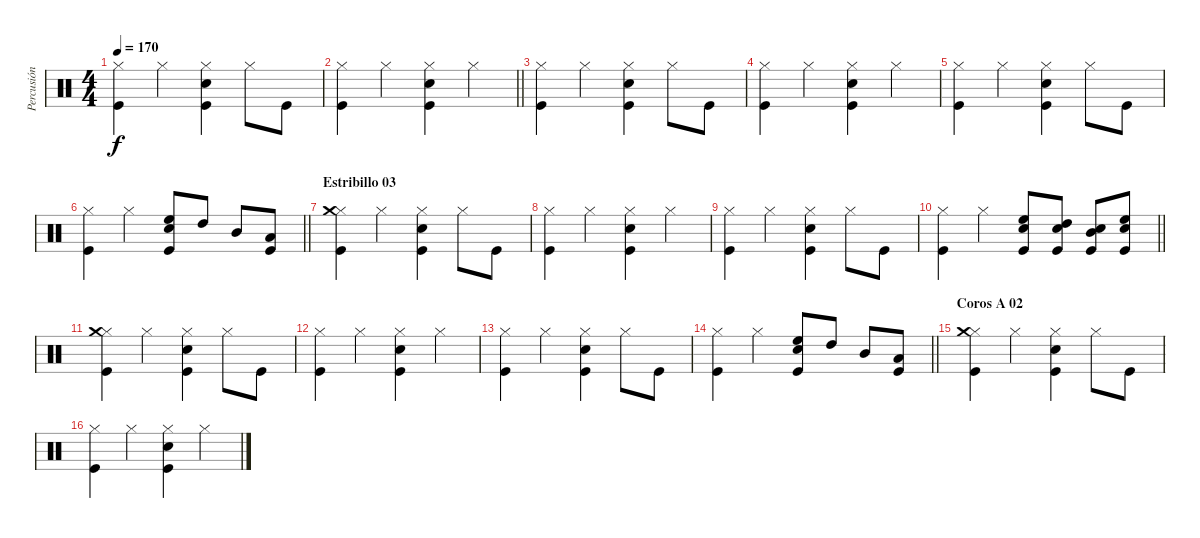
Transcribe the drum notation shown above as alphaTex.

\track ("Percusión" "Percusión") {instrument percussion}
\staff {score}
\articulation defaults
\ts (4 4)
\tempo 170
\clef neutral
\ks c
("Hi-Hat (closed)" "Kick (hit)").4{dy f} "Hi-Hat (closed)".4 ("Hi-Hat (closed)" "Snare (hit) 2" "Kick (hit)").4 "Hi-Hat (closed)".8 "Kick (hit)".8 |
\barLineRight lightlight
("Hi-Hat (closed)" "Kick (hit)").4 "Hi-Hat (closed)".4 ("Hi-Hat (closed)" "Snare (hit) 2" "Kick (hit)").4 "Hi-Hat (closed)".4 |
("Hi-Hat (closed)" "Kick (hit)").4 "Hi-Hat (closed)".4 ("Hi-Hat (closed)" "Snare (hit) 2" "Kick (hit)").4 "Hi-Hat (closed)".8 "Kick (hit)".8 |
("Hi-Hat (closed)" "Kick (hit)").4 "Hi-Hat (closed)".4 ("Hi-Hat (closed)" "Snare (hit) 2" "Kick (hit)").4 "Hi-Hat (closed)".4 |
("Hi-Hat (closed)" "Kick (hit)").4 "Hi-Hat (closed)".4 ("Hi-Hat (closed)" "Snare (hit) 2" "Kick (hit)").4 "Hi-Hat (closed)".8 "Kick (hit)".8 |
\barLineRight lightlight
("Hi-Hat (closed)" "Kick (hit)").4 "Hi-Hat (closed)".4 ("High Floor Tom (hit)" "Snare (hit) 2" "Kick (hit)").8 "High Tom (hit)".8 "Mid Tom (hit)".8 ("Low Tom (hit)" "Kick (hit)").8 |
\section ("" "Estribillo 03")
("Hi-Hat (closed)" "Crash medium (hit)" "Kick (hit)").4 "Hi-Hat (closed)".4 ("Hi-Hat (closed)" "Snare (hit) 2" "Kick (hit)").4 "Hi-Hat (closed)".8 "Kick (hit)".8 |
("Hi-Hat (closed)" "Kick (hit)").4 "Hi-Hat (closed)".4 ("Hi-Hat (closed)" "Snare (hit) 2" "Kick (hit)").4 "Hi-Hat (closed)".4 |
("Hi-Hat (closed)" "Kick (hit)").4 "Hi-Hat (closed)".4 ("Hi-Hat (closed)" "Snare (hit) 2" "Kick (hit)").4 "Hi-Hat (closed)".8 "Kick (hit)".8 |
\barLineRight lightlight
("Hi-Hat (closed)" "Kick (hit)").4 "Hi-Hat (closed)".4 ("Snare (hit) 2" "High Floor Tom (hit)" "Kick (hit)").8 ("Snare (hit) 2" "High Tom (hit)" "Kick (hit)").8 ("Snare (hit) 2" "Mid Tom (hit)" "Kick (hit)").8 ("Snare (hit) 2" "High Floor Tom (hit)" "Kick (hit)").8 |
("Hi-Hat (closed)" "Crash medium (hit)" "Kick (hit)").4 "Hi-Hat (closed)".4 ("Hi-Hat (closed)" "Snare (hit) 2" "Kick (hit)").4 "Hi-Hat (closed)".8 "Kick (hit)".8 |
("Hi-Hat (closed)" "Kick (hit)").4 "Hi-Hat (closed)".4 ("Hi-Hat (closed)" "Snare (hit) 2" "Kick (hit)").4 "Hi-Hat (closed)".4 |
("Hi-Hat (closed)" "Kick (hit)").4 "Hi-Hat (closed)".4 ("Hi-Hat (closed)" "Snare (hit) 2" "Kick (hit)").4 "Hi-Hat (closed)".8 "Kick (hit)".8 |
\barLineRight lightlight
("Hi-Hat (closed)" "Kick (hit)").4 "Hi-Hat (closed)".4 ("High Floor Tom (hit)" "Snare (hit) 2" "Kick (hit)").8 "High Tom (hit)".8 "Mid Tom (hit)".8 ("Low Tom (hit)" "Kick (hit)").8 |
\section ("" "Coros A 02")
("Hi-Hat (closed)" "Crash medium (hit)" "Kick (hit)").4 "Hi-Hat (closed)".4 ("Hi-Hat (closed)" "Snare (hit) 2" "Kick (hit)").4 "Hi-Hat (closed)".8 "Kick (hit)".8 |
("Hi-Hat (closed)" "Kick (hit)").4 "Hi-Hat (closed)".4 ("Hi-Hat (closed)" "Snare (hit) 2" "Kick (hit)").4 "Hi-Hat (closed)".4
